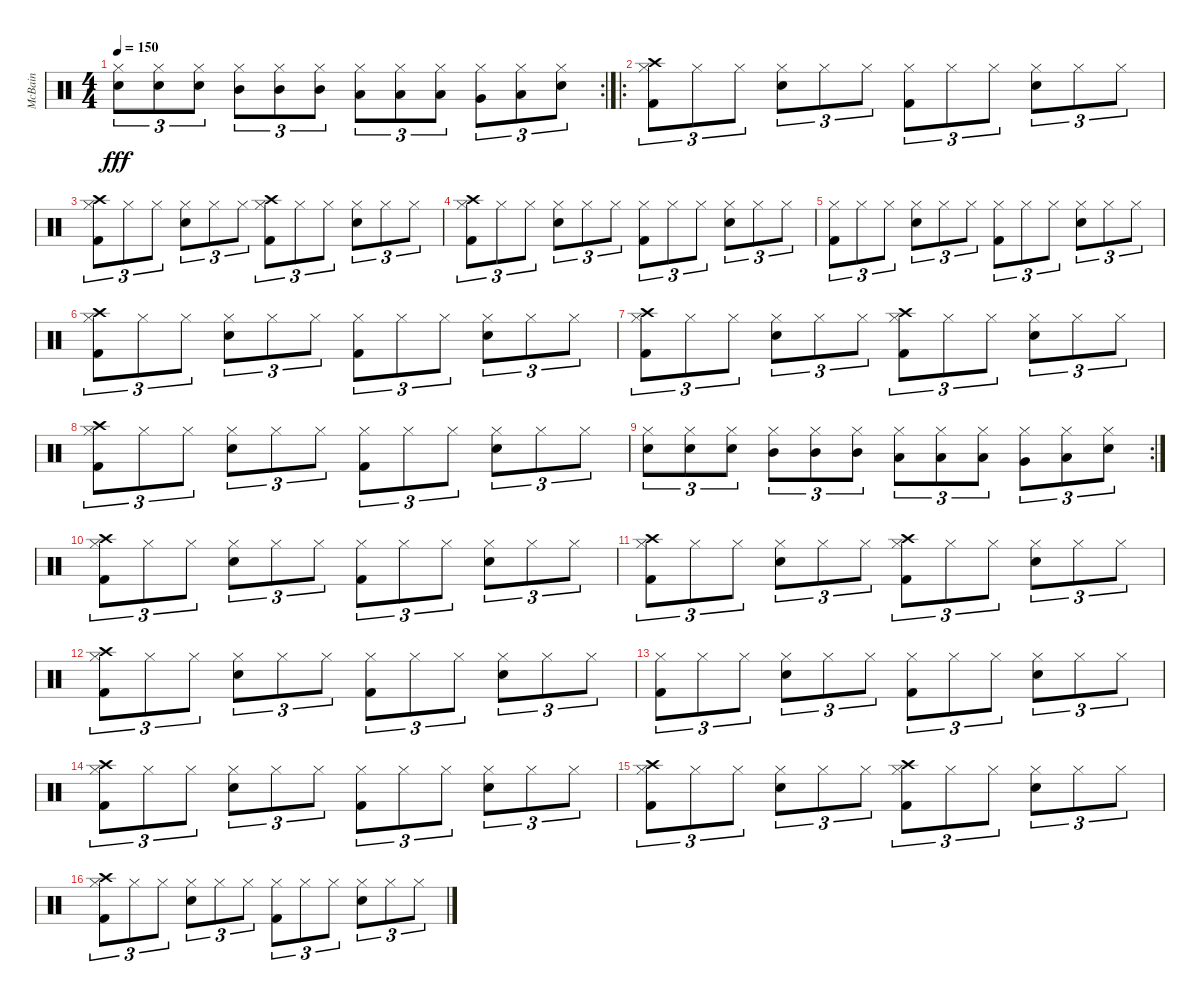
\track ("McBain" "McBain") {instrument percussion}
\staff {score}
\articulation defaults
\rc 2
\ts (4 4)
\tempo 150
\clef neutral
\ks c
("Snare (hit) 2" "Hi-Hat (closed)").8{tu (3 2) dy fff} ("Snare (hit) 2" "Hi-Hat (closed)").8{tu (3 2)} ("Snare (hit) 2" "Hi-Hat (closed)").8{tu (3 2)} ("Mid Tom (hit)" "Hi-Hat (closed)").8{tu (3 2)} ("Mid Tom (hit)" "Hi-Hat (closed)").8{tu (3 2)} ("Mid Tom (hit)" "Hi-Hat (closed)").8{tu (3 2)} ("Low Tom (hit)" "Hi-Hat (closed)").8{tu (3 2)} ("Low Tom (hit)" "Hi-Hat (closed)").8{tu (3 2)} ("Low Tom (hit)" "Hi-Hat (closed)").8{tu (3 2)} ("Very Low Tom (hit)" "Hi-Hat (closed)").8{tu (3 2)} ("Low Floor Tom (hit)" "Hi-Hat (closed)").8{tu (3 2)} ("Electric Snare (hit)" "Hi-Hat (closed)").8{tu (3 2)} |
\ro
("Hi-Hat (closed)" "Kick (hit) 2" "Crash high (hit)").8{tu (3 2)} "Hi-Hat (closed)".8{tu (3 2)} "Hi-Hat (closed)".8{tu (3 2)} ("Hi-Hat (closed)" "Snare (hit) 2").8{tu (3 2)} "Hi-Hat (closed)".8{tu (3 2)} "Hi-Hat (closed)".8{tu (3 2)} ("Hi-Hat (closed)" "Kick (hit) 2").8{tu (3 2)} "Hi-Hat (closed)".8{tu (3 2)} "Hi-Hat (closed)".8{tu (3 2)} ("Hi-Hat (closed)" "Snare (hit) 2").8{tu (3 2)} "Hi-Hat (closed)".8{tu (3 2)} "Hi-Hat (closed)".8{tu (3 2)} |
("Hi-Hat (closed)" "Kick (hit) 2" "Crash high (hit)").8{tu (3 2)} "Hi-Hat (closed)".8{tu (3 2)} "Hi-Hat (closed)".8{tu (3 2)} ("Hi-Hat (closed)" "Snare (hit) 2").8{tu (3 2)} "Hi-Hat (closed)".8{tu (3 2)} "Hi-Hat (closed)".8{tu (3 2)} ("Hi-Hat (closed)" "Kick (hit) 2" "Crash high (hit)").8{tu (3 2)} "Hi-Hat (closed)".8{tu (3 2)} "Hi-Hat (closed)".8{tu (3 2)} ("Hi-Hat (closed)" "Snare (hit) 2").8{tu (3 2)} "Hi-Hat (closed)".8{tu (3 2)} "Hi-Hat (closed)".8{tu (3 2)} |
("Hi-Hat (closed)" "Kick (hit) 2" "Crash high (hit)").8{tu (3 2)} "Hi-Hat (closed)".8{tu (3 2)} "Hi-Hat (closed)".8{tu (3 2)} ("Hi-Hat (closed)" "Snare (hit) 2").8{tu (3 2)} "Hi-Hat (closed)".8{tu (3 2)} "Hi-Hat (closed)".8{tu (3 2)} ("Hi-Hat (closed)" "Kick (hit) 2").8{tu (3 2)} "Hi-Hat (closed)".8{tu (3 2)} "Hi-Hat (closed)".8{tu (3 2)} ("Hi-Hat (closed)" "Snare (hit) 2").8{tu (3 2)} "Hi-Hat (closed)".8{tu (3 2)} "Hi-Hat (closed)".8{tu (3 2)} |
("Hi-Hat (closed)" "Kick (hit) 2").8{tu (3 2)} "Hi-Hat (closed)".8{tu (3 2)} "Hi-Hat (closed)".8{tu (3 2)} ("Hi-Hat (closed)" "Snare (hit) 2").8{tu (3 2)} "Hi-Hat (closed)".8{tu (3 2)} "Hi-Hat (closed)".8{tu (3 2)} ("Hi-Hat (closed)" "Kick (hit) 2").8{tu (3 2)} "Hi-Hat (closed)".8{tu (3 2)} "Hi-Hat (closed)".8{tu (3 2)} ("Hi-Hat (closed)" "Snare (hit) 2").8{tu (3 2)} "Hi-Hat (closed)".8{tu (3 2)} "Hi-Hat (closed)".8{tu (3 2)} |
("Hi-Hat (closed)" "Kick (hit) 2" "Crash high (hit)").8{tu (3 2)} "Hi-Hat (closed)".8{tu (3 2)} "Hi-Hat (closed)".8{tu (3 2)} ("Hi-Hat (closed)" "Snare (hit) 2").8{tu (3 2)} "Hi-Hat (closed)".8{tu (3 2)} "Hi-Hat (closed)".8{tu (3 2)} ("Hi-Hat (closed)" "Kick (hit) 2").8{tu (3 2)} "Hi-Hat (closed)".8{tu (3 2)} "Hi-Hat (closed)".8{tu (3 2)} ("Hi-Hat (closed)" "Snare (hit) 2").8{tu (3 2)} "Hi-Hat (closed)".8{tu (3 2)} "Hi-Hat (closed)".8{tu (3 2)} |
("Hi-Hat (closed)" "Kick (hit) 2" "Crash high (hit)").8{tu (3 2)} "Hi-Hat (closed)".8{tu (3 2)} "Hi-Hat (closed)".8{tu (3 2)} ("Hi-Hat (closed)" "Snare (hit) 2").8{tu (3 2)} "Hi-Hat (closed)".8{tu (3 2)} "Hi-Hat (closed)".8{tu (3 2)} ("Hi-Hat (closed)" "Kick (hit) 2" "Crash high (hit)").8{tu (3 2)} "Hi-Hat (closed)".8{tu (3 2)} "Hi-Hat (closed)".8{tu (3 2)} ("Hi-Hat (closed)" "Snare (hit) 2").8{tu (3 2)} "Hi-Hat (closed)".8{tu (3 2)} "Hi-Hat (closed)".8{tu (3 2)} |
("Hi-Hat (closed)" "Kick (hit) 2" "Crash high (hit)").8{tu (3 2)} "Hi-Hat (closed)".8{tu (3 2)} "Hi-Hat (closed)".8{tu (3 2)} ("Hi-Hat (closed)" "Snare (hit) 2").8{tu (3 2)} "Hi-Hat (closed)".8{tu (3 2)} "Hi-Hat (closed)".8{tu (3 2)} ("Hi-Hat (closed)" "Kick (hit) 2").8{tu (3 2)} "Hi-Hat (closed)".8{tu (3 2)} "Hi-Hat (closed)".8{tu (3 2)} ("Hi-Hat (closed)" "Snare (hit) 2").8{tu (3 2)} "Hi-Hat (closed)".8{tu (3 2)} "Hi-Hat (closed)".8{tu (3 2)} |
\rc 2
("Snare (hit) 2" "Hi-Hat (closed)").8{tu (3 2)} ("Snare (hit) 2" "Hi-Hat (closed)").8{tu (3 2)} ("Snare (hit) 2" "Hi-Hat (closed)").8{tu (3 2)} ("Mid Tom (hit)" "Hi-Hat (closed)").8{tu (3 2)} ("Mid Tom (hit)" "Hi-Hat (closed)").8{tu (3 2)} ("Mid Tom (hit)" "Hi-Hat (closed)").8{tu (3 2)} ("Low Tom (hit)" "Hi-Hat (closed)").8{tu (3 2)} ("Low Tom (hit)" "Hi-Hat (closed)").8{tu (3 2)} ("Low Tom (hit)" "Hi-Hat (closed)").8{tu (3 2)} ("Very Low Tom (hit)" "Hi-Hat (closed)").8{tu (3 2)} ("Low Floor Tom (hit)" "Hi-Hat (closed)").8{tu (3 2)} ("Electric Snare (hit)" "Hi-Hat (closed)").8{tu (3 2)} |
("Hi-Hat (closed)" "Kick (hit) 2" "Crash high (hit)").8{tu (3 2)} "Hi-Hat (closed)".8{tu (3 2)} "Hi-Hat (closed)".8{tu (3 2)} ("Hi-Hat (closed)" "Snare (hit) 2").8{tu (3 2)} "Hi-Hat (closed)".8{tu (3 2)} "Hi-Hat (closed)".8{tu (3 2)} ("Hi-Hat (closed)" "Kick (hit) 2").8{tu (3 2)} "Hi-Hat (closed)".8{tu (3 2)} "Hi-Hat (closed)".8{tu (3 2)} ("Hi-Hat (closed)" "Snare (hit) 2").8{tu (3 2)} "Hi-Hat (closed)".8{tu (3 2)} "Hi-Hat (closed)".8{tu (3 2)} |
("Hi-Hat (closed)" "Kick (hit) 2" "Crash high (hit)").8{tu (3 2)} "Hi-Hat (closed)".8{tu (3 2)} "Hi-Hat (closed)".8{tu (3 2)} ("Hi-Hat (closed)" "Snare (hit) 2").8{tu (3 2)} "Hi-Hat (closed)".8{tu (3 2)} "Hi-Hat (closed)".8{tu (3 2)} ("Hi-Hat (closed)" "Kick (hit) 2" "Crash high (hit)").8{tu (3 2)} "Hi-Hat (closed)".8{tu (3 2)} "Hi-Hat (closed)".8{tu (3 2)} ("Hi-Hat (closed)" "Snare (hit) 2").8{tu (3 2)} "Hi-Hat (closed)".8{tu (3 2)} "Hi-Hat (closed)".8{tu (3 2)} |
("Hi-Hat (closed)" "Kick (hit) 2" "Crash high (hit)").8{tu (3 2)} "Hi-Hat (closed)".8{tu (3 2)} "Hi-Hat (closed)".8{tu (3 2)} ("Hi-Hat (closed)" "Snare (hit) 2").8{tu (3 2)} "Hi-Hat (closed)".8{tu (3 2)} "Hi-Hat (closed)".8{tu (3 2)} ("Hi-Hat (closed)" "Kick (hit) 2").8{tu (3 2)} "Hi-Hat (closed)".8{tu (3 2)} "Hi-Hat (closed)".8{tu (3 2)} ("Hi-Hat (closed)" "Snare (hit) 2").8{tu (3 2)} "Hi-Hat (closed)".8{tu (3 2)} "Hi-Hat (closed)".8{tu (3 2)} |
("Hi-Hat (closed)" "Kick (hit) 2").8{tu (3 2)} "Hi-Hat (closed)".8{tu (3 2)} "Hi-Hat (closed)".8{tu (3 2)} ("Hi-Hat (closed)" "Snare (hit) 2").8{tu (3 2)} "Hi-Hat (closed)".8{tu (3 2)} "Hi-Hat (closed)".8{tu (3 2)} ("Hi-Hat (closed)" "Kick (hit) 2").8{tu (3 2)} "Hi-Hat (closed)".8{tu (3 2)} "Hi-Hat (closed)".8{tu (3 2)} ("Hi-Hat (closed)" "Snare (hit) 2").8{tu (3 2)} "Hi-Hat (closed)".8{tu (3 2)} "Hi-Hat (closed)".8{tu (3 2)} |
("Hi-Hat (closed)" "Kick (hit) 2" "Crash high (hit)").8{tu (3 2)} "Hi-Hat (closed)".8{tu (3 2)} "Hi-Hat (closed)".8{tu (3 2)} ("Hi-Hat (closed)" "Snare (hit) 2").8{tu (3 2)} "Hi-Hat (closed)".8{tu (3 2)} "Hi-Hat (closed)".8{tu (3 2)} ("Hi-Hat (closed)" "Kick (hit) 2").8{tu (3 2)} "Hi-Hat (closed)".8{tu (3 2)} "Hi-Hat (closed)".8{tu (3 2)} ("Hi-Hat (closed)" "Snare (hit) 2").8{tu (3 2)} "Hi-Hat (closed)".8{tu (3 2)} "Hi-Hat (closed)".8{tu (3 2)} |
("Hi-Hat (closed)" "Kick (hit) 2" "Crash high (hit)").8{tu (3 2)} "Hi-Hat (closed)".8{tu (3 2)} "Hi-Hat (closed)".8{tu (3 2)} ("Hi-Hat (closed)" "Snare (hit) 2").8{tu (3 2)} "Hi-Hat (closed)".8{tu (3 2)} "Hi-Hat (closed)".8{tu (3 2)} ("Hi-Hat (closed)" "Kick (hit) 2" "Crash high (hit)").8{tu (3 2)} "Hi-Hat (closed)".8{tu (3 2)} "Hi-Hat (closed)".8{tu (3 2)} ("Hi-Hat (closed)" "Snare (hit) 2").8{tu (3 2)} "Hi-Hat (closed)".8{tu (3 2)} "Hi-Hat (closed)".8{tu (3 2)} |
("Hi-Hat (closed)" "Kick (hit) 2" "Crash high (hit)").8{tu (3 2)} "Hi-Hat (closed)".8{tu (3 2)} "Hi-Hat (closed)".8{tu (3 2)} ("Hi-Hat (closed)" "Snare (hit) 2").8{tu (3 2)} "Hi-Hat (closed)".8{tu (3 2)} "Hi-Hat (closed)".8{tu (3 2)} ("Hi-Hat (closed)" "Kick (hit) 2").8{tu (3 2)} "Hi-Hat (closed)".8{tu (3 2)} "Hi-Hat (closed)".8{tu (3 2)} ("Hi-Hat (closed)" "Snare (hit) 2").8{tu (3 2)} "Hi-Hat (closed)".8{tu (3 2)} "Hi-Hat (closed)".8{tu (3 2)}
